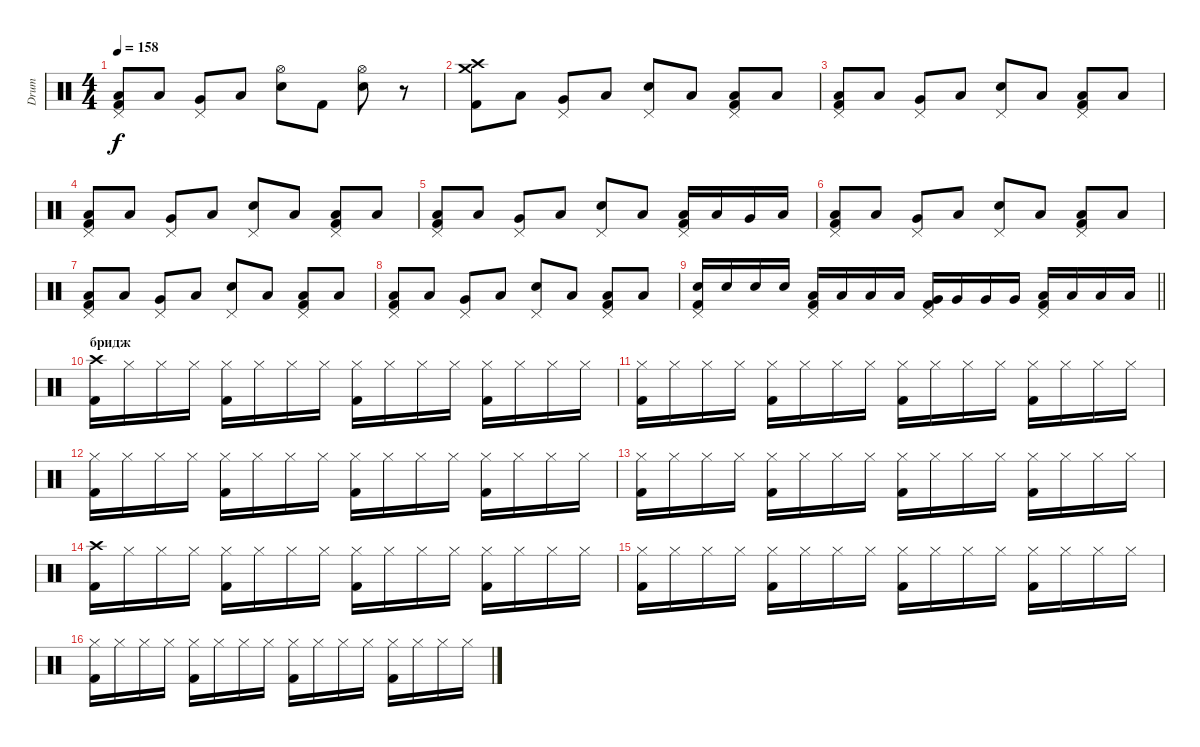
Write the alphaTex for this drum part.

\track ("Drum" "Drum") {instrument percussion}
\staff {score}
\articulation defaults
\ts (4 4)
\tempo 158
\clef neutral
\ks c
("Pedal Hi-Hat (hit)" "Low Floor Tom (hit)" "Kick (hit) 2").8{dy f} "Low Tom (hit)".8 ("Pedal Hi-Hat (hit)" "Very Low Tom (hit)").8 "Low Tom (hit)".8 ("Hi-Hat (open)" "Snare (hit) 2").8 "Kick (hit) 2".8 ("Hi-Hat (open)" "Snare (hit) 2").8 r.8 |
("Crash high (hit)" "Crash medium (hit)" "Kick (hit) 2").8 "Low Tom (hit)".8 ("Pedal Hi-Hat (hit)" "Very Low Tom (hit)").8 "Low Tom (hit)".8 ("Pedal Hi-Hat (hit)" "Snare (hit) 2").8 "Low Tom (hit)".8 ("Pedal Hi-Hat (hit)" "Low Floor Tom (hit)" "Kick (hit) 2").8 "Low Tom (hit)".8 |
("Pedal Hi-Hat (hit)" "Low Floor Tom (hit)" "Kick (hit) 2").8 "Low Tom (hit)".8 ("Pedal Hi-Hat (hit)" "Very Low Tom (hit)").8 "Low Tom (hit)".8 ("Pedal Hi-Hat (hit)" "Snare (hit) 2").8 "Low Tom (hit)".8 ("Pedal Hi-Hat (hit)" "Low Floor Tom (hit)" "Kick (hit) 2").8 "Low Tom (hit)".8 |
("Pedal Hi-Hat (hit)" "Low Floor Tom (hit)" "Kick (hit) 2").8 "Low Tom (hit)".8 ("Pedal Hi-Hat (hit)" "Very Low Tom (hit)").8 "Low Tom (hit)".8 ("Pedal Hi-Hat (hit)" "Snare (hit) 2").8 "Low Tom (hit)".8 ("Pedal Hi-Hat (hit)" "Low Floor Tom (hit)" "Kick (hit) 2").8 "Low Tom (hit)".8 |
("Pedal Hi-Hat (hit)" "Low Floor Tom (hit)" "Kick (hit) 2").8 "Low Tom (hit)".8 ("Pedal Hi-Hat (hit)" "Very Low Tom (hit)").8 "Low Tom (hit)".8 ("Pedal Hi-Hat (hit)" "Snare (hit) 2").8 "Low Tom (hit)".8 ("Pedal Hi-Hat (hit)" "Low Floor Tom (hit)" "Kick (hit) 2").16 "Low Tom (hit)".16 "Very Low Tom (hit)".16 "Low Floor Tom (hit)".16 |
("Pedal Hi-Hat (hit)" "Low Floor Tom (hit)" "Kick (hit) 2").8 "Low Tom (hit)".8 ("Pedal Hi-Hat (hit)" "Very Low Tom (hit)").8 "Low Tom (hit)".8 ("Pedal Hi-Hat (hit)" "Snare (hit) 2").8 "Low Tom (hit)".8 ("Pedal Hi-Hat (hit)" "Low Floor Tom (hit)" "Kick (hit) 2").8 "Low Tom (hit)".8 |
("Pedal Hi-Hat (hit)" "Low Floor Tom (hit)" "Kick (hit) 2").8 "Low Tom (hit)".8 ("Pedal Hi-Hat (hit)" "Very Low Tom (hit)").8 "Low Tom (hit)".8 ("Pedal Hi-Hat (hit)" "Snare (hit) 2").8 "Low Tom (hit)".8 ("Pedal Hi-Hat (hit)" "Low Floor Tom (hit)" "Kick (hit) 2").8 "Low Tom (hit)".8 |
("Pedal Hi-Hat (hit)" "Low Floor Tom (hit)" "Kick (hit) 2").8 "Low Tom (hit)".8 ("Pedal Hi-Hat (hit)" "Very Low Tom (hit)").8 "Low Tom (hit)".8 ("Pedal Hi-Hat (hit)" "Snare (hit) 2").8 "Low Tom (hit)".8 ("Pedal Hi-Hat (hit)" "Low Floor Tom (hit)" "Kick (hit) 2").8 "Low Tom (hit)".8 |
\barLineRight lightlight
("Pedal Hi-Hat (hit)" "Snare (hit) 2" "Kick (hit) 2").16 "Snare (hit) 2".16 "Snare (hit) 2".16 "Snare (hit) 2".16 ("Pedal Hi-Hat (hit)" "Low Tom (hit)" "Kick (hit) 2").16 "Low Tom (hit)".16 "Low Tom (hit)".16 "Low Tom (hit)".16 ("Pedal Hi-Hat (hit)" "Very Low Tom (hit)" "Kick (hit) 2").16 "Very Low Tom (hit)".16 "Very Low Tom (hit)".16 "Very Low Tom (hit)".16 ("Pedal Hi-Hat (hit)" "Low Floor Tom (hit)" "Kick (hit) 2").16 "Low Floor Tom (hit)".16 "Low Floor Tom (hit)".16 "Low Floor Tom (hit)".16 |
\section ("" "бридж")
("Crash high (hit)" "Kick (hit) 2").16 "Hi-Hat (closed)".16 "Hi-Hat (closed)".16 "Hi-Hat (closed)".16 ("Hi-Hat (closed)" "Kick (hit) 2").16 "Hi-Hat (closed)".16 "Hi-Hat (closed)".16 "Hi-Hat (closed)".16 ("Hi-Hat (closed)" "Kick (hit) 2").16 "Hi-Hat (closed)".16 "Hi-Hat (closed)".16 "Hi-Hat (closed)".16 ("Hi-Hat (closed)" "Kick (hit) 2").16 "Hi-Hat (closed)".16 "Hi-Hat (closed)".16 "Hi-Hat (closed)".16 |
("Hi-Hat (closed)" "Kick (hit) 2").16 "Hi-Hat (closed)".16 "Hi-Hat (closed)".16 "Hi-Hat (closed)".16 ("Hi-Hat (closed)" "Kick (hit) 2").16 "Hi-Hat (closed)".16 "Hi-Hat (closed)".16 "Hi-Hat (closed)".16 ("Hi-Hat (closed)" "Kick (hit) 2").16 "Hi-Hat (closed)".16 "Hi-Hat (closed)".16 "Hi-Hat (closed)".16 ("Hi-Hat (closed)" "Kick (hit) 2").16 "Hi-Hat (closed)".16 "Hi-Hat (closed)".16 "Hi-Hat (closed)".16 |
("Hi-Hat (closed)" "Kick (hit) 2").16 "Hi-Hat (closed)".16 "Hi-Hat (closed)".16 "Hi-Hat (closed)".16 ("Hi-Hat (closed)" "Kick (hit) 2").16 "Hi-Hat (closed)".16 "Hi-Hat (closed)".16 "Hi-Hat (closed)".16 ("Hi-Hat (closed)" "Kick (hit) 2").16 "Hi-Hat (closed)".16 "Hi-Hat (closed)".16 "Hi-Hat (closed)".16 ("Hi-Hat (closed)" "Kick (hit) 2").16 "Hi-Hat (closed)".16 "Hi-Hat (closed)".16 "Hi-Hat (closed)".16 |
("Hi-Hat (closed)" "Kick (hit) 2").16 "Hi-Hat (closed)".16 "Hi-Hat (closed)".16 "Hi-Hat (closed)".16 ("Hi-Hat (closed)" "Kick (hit) 2").16 "Hi-Hat (closed)".16 "Hi-Hat (closed)".16 "Hi-Hat (closed)".16 ("Hi-Hat (closed)" "Kick (hit) 2").16 "Hi-Hat (closed)".16 "Hi-Hat (closed)".16 "Hi-Hat (closed)".16 ("Hi-Hat (closed)" "Kick (hit) 2").16 "Hi-Hat (closed)".16 "Hi-Hat (closed)".16 "Hi-Hat (closed)".16 |
("Crash high (hit)" "Kick (hit) 2").16 "Hi-Hat (closed)".16 "Hi-Hat (closed)".16 "Hi-Hat (closed)".16 ("Hi-Hat (closed)" "Kick (hit) 2").16 "Hi-Hat (closed)".16 "Hi-Hat (closed)".16 "Hi-Hat (closed)".16 ("Hi-Hat (closed)" "Kick (hit) 2").16 "Hi-Hat (closed)".16 "Hi-Hat (closed)".16 "Hi-Hat (closed)".16 ("Hi-Hat (closed)" "Kick (hit) 2").16 "Hi-Hat (closed)".16 "Hi-Hat (closed)".16 "Hi-Hat (closed)".16 |
("Hi-Hat (closed)" "Kick (hit) 2").16 "Hi-Hat (closed)".16 "Hi-Hat (closed)".16 "Hi-Hat (closed)".16 ("Hi-Hat (closed)" "Kick (hit) 2").16 "Hi-Hat (closed)".16 "Hi-Hat (closed)".16 "Hi-Hat (closed)".16 ("Hi-Hat (closed)" "Kick (hit) 2").16 "Hi-Hat (closed)".16 "Hi-Hat (closed)".16 "Hi-Hat (closed)".16 ("Hi-Hat (closed)" "Kick (hit) 2").16 "Hi-Hat (closed)".16 "Hi-Hat (closed)".16 "Hi-Hat (closed)".16 |
("Hi-Hat (closed)" "Kick (hit) 2").16 "Hi-Hat (closed)".16 "Hi-Hat (closed)".16 "Hi-Hat (closed)".16 ("Hi-Hat (closed)" "Kick (hit) 2").16 "Hi-Hat (closed)".16 "Hi-Hat (closed)".16 "Hi-Hat (closed)".16 ("Hi-Hat (closed)" "Kick (hit) 2").16 "Hi-Hat (closed)".16 "Hi-Hat (closed)".16 "Hi-Hat (closed)".16 ("Hi-Hat (closed)" "Kick (hit) 2").16 "Hi-Hat (closed)".16 "Hi-Hat (closed)".16 "Hi-Hat (closed)".16
